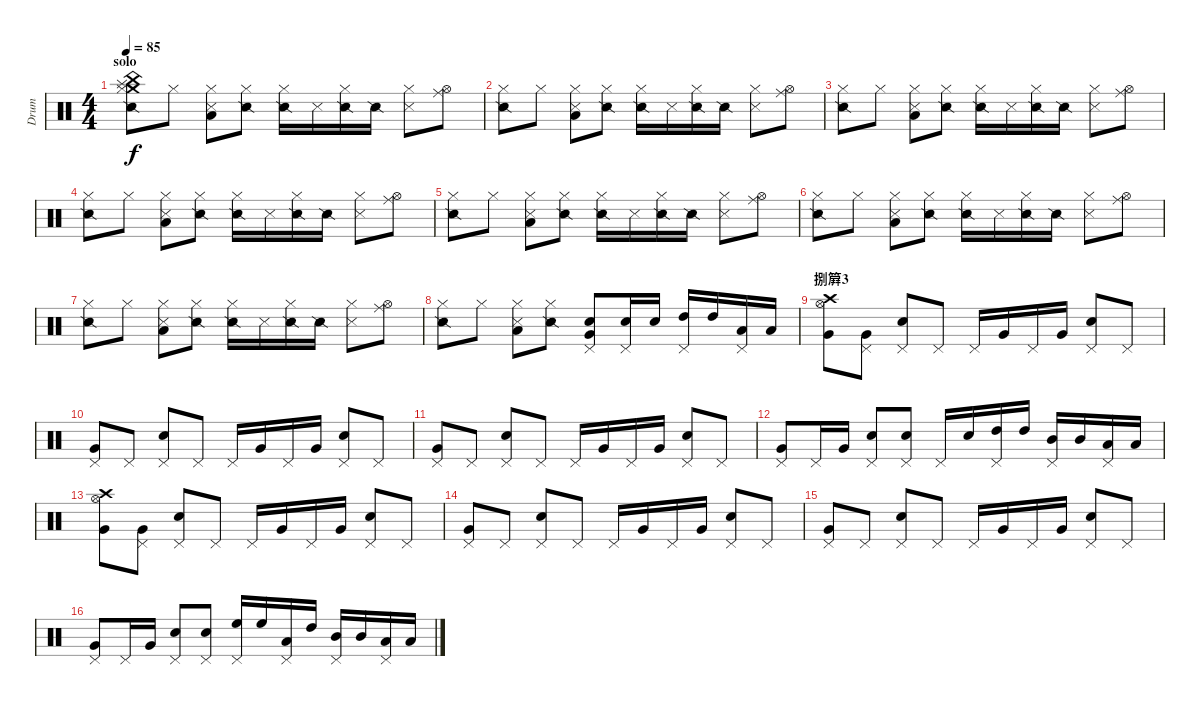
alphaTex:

\track ("Drum" "Drum") {instrument percussion}
\staff {score}
\articulation defaults
\ts (4 4)
\section ("" "solo")
\tempo 85
\clef neutral
\ks c
("Crash medium (hit)" "Splash (hit)" "China (hit)" "Snare (side stick) 2" "Hi-Hat (closed)").8{dy f} "Hi-Hat (closed)".8 ("Metronome (hit)" "Low Floor Tom (hit)" "Hi-Hat (closed)").8 ("Snare (side stick) 2" "Hi-Hat (closed)").8 ("Snare (side stick) 2" "Hi-Hat (closed)").16 "Metronome (hit)".16 ("Snare (side stick) 2" "Hi-Hat (closed)").16 "Snare (side stick) 2".16 ("Metronome (hit)" "Hi-Hat (closed)").8 ("Ride (middle)" "Hi-Hat (open)").8 |
("Snare (side stick) 2" "Hi-Hat (closed)").8 "Hi-Hat (closed)".8 ("Metronome (hit)" "Low Floor Tom (hit)" "Hi-Hat (closed)").8 ("Snare (side stick) 2" "Hi-Hat (closed)").8 ("Snare (side stick) 2" "Hi-Hat (closed)").16 "Metronome (hit)".16 ("Snare (side stick) 2" "Hi-Hat (closed)").16 "Snare (side stick) 2".16 ("Metronome (hit)" "Hi-Hat (closed)").8 ("Ride (middle)" "Hi-Hat (open)").8 |
("Snare (side stick) 2" "Hi-Hat (closed)").8 "Hi-Hat (closed)".8 ("Metronome (hit)" "Low Floor Tom (hit)" "Hi-Hat (closed)").8 ("Snare (side stick) 2" "Hi-Hat (closed)").8 ("Snare (side stick) 2" "Hi-Hat (closed)").16 "Metronome (hit)".16 ("Snare (side stick) 2" "Hi-Hat (closed)").16 "Snare (side stick) 2".16 ("Metronome (hit)" "Hi-Hat (closed)").8 ("Ride (middle)" "Hi-Hat (open)").8 |
("Snare (side stick) 2" "Hi-Hat (closed)").8 "Hi-Hat (closed)".8 ("Metronome (hit)" "Low Floor Tom (hit)" "Hi-Hat (closed)").8 ("Snare (side stick) 2" "Hi-Hat (closed)").8 ("Snare (side stick) 2" "Hi-Hat (closed)").16 "Metronome (hit)".16 ("Snare (side stick) 2" "Hi-Hat (closed)").16 "Snare (side stick) 2".16 ("Metronome (hit)" "Hi-Hat (closed)").8 ("Ride (middle)" "Hi-Hat (open)").8 |
("Snare (side stick) 2" "Hi-Hat (closed)").8 "Hi-Hat (closed)".8 ("Metronome (hit)" "Low Floor Tom (hit)" "Hi-Hat (closed)").8 ("Snare (side stick) 2" "Hi-Hat (closed)").8 ("Snare (side stick) 2" "Hi-Hat (closed)").16 "Metronome (hit)".16 ("Snare (side stick) 2" "Hi-Hat (closed)").16 "Snare (side stick) 2".16 ("Metronome (hit)" "Hi-Hat (closed)").8 ("Ride (middle)" "Hi-Hat (open)").8 |
("Snare (side stick) 2" "Hi-Hat (closed)").8 "Hi-Hat (closed)".8 ("Metronome (hit)" "Low Floor Tom (hit)" "Hi-Hat (closed)").8 ("Snare (side stick) 2" "Hi-Hat (closed)").8 ("Snare (side stick) 2" "Hi-Hat (closed)").16 "Metronome (hit)".16 ("Snare (side stick) 2" "Hi-Hat (closed)").16 "Snare (side stick) 2".16 ("Metronome (hit)" "Hi-Hat (closed)").8 ("Ride (middle)" "Hi-Hat (open)").8 |
("Snare (side stick) 2" "Hi-Hat (closed)").8 "Hi-Hat (closed)".8 ("Metronome (hit)" "Low Floor Tom (hit)" "Hi-Hat (closed)").8 ("Snare (side stick) 2" "Hi-Hat (closed)").8 ("Snare (side stick) 2" "Hi-Hat (closed)").16 "Metronome (hit)".16 ("Snare (side stick) 2" "Hi-Hat (closed)").16 "Snare (side stick) 2".16 ("Metronome (hit)" "Hi-Hat (closed)").8 ("Ride (middle)" "Hi-Hat (open)").8 |
("Snare (side stick) 2" "Hi-Hat (closed)").8 "Hi-Hat (closed)".8 ("Metronome (hit)" "Low Floor Tom (hit)" "Hi-Hat (closed)").8 ("Snare (side stick) 2" "Hi-Hat (closed)").8 ("Snare (hit) 2" "Very Low Tom (hit)" "Pedal Hi-Hat (hit)").8 ("Snare (hit) 2" "Pedal Hi-Hat (hit)").16 "Snare (hit) 2".16 ("High Tom (hit)" "Pedal Hi-Hat (hit)").16 "High Tom (hit)".16 ("Low Tom (hit)" "Pedal Hi-Hat (hit)").16 "Low Tom (hit)".16 |
\section ("" "捌簈3")
("Crash high (hit)" "Very Low Tom (hit)" "Hi-Hat (open)").8 ("Very Low Tom (hit)" "Pedal Hi-Hat (hit)").8 ("Snare (hit) 2" "Pedal Hi-Hat (hit)").8 "Pedal Hi-Hat (hit)".8 "Pedal Hi-Hat (hit)".16 "Very Low Tom (hit)".16 "Pedal Hi-Hat (hit)".16 "Very Low Tom (hit)".16 ("Snare (hit) 2" "Pedal Hi-Hat (hit)").8 "Pedal Hi-Hat (hit)".8 |
("Very Low Tom (hit)" "Pedal Hi-Hat (hit)").8 "Pedal Hi-Hat (hit)".8 ("Snare (hit) 2" "Pedal Hi-Hat (hit)").8 "Pedal Hi-Hat (hit)".8 "Pedal Hi-Hat (hit)".16 "Very Low Tom (hit)".16 "Pedal Hi-Hat (hit)".16 "Very Low Tom (hit)".16 ("Snare (hit) 2" "Pedal Hi-Hat (hit)").8 "Pedal Hi-Hat (hit)".8 |
("Very Low Tom (hit)" "Pedal Hi-Hat (hit)").8 "Pedal Hi-Hat (hit)".8 ("Snare (hit) 2" "Pedal Hi-Hat (hit)").8 "Pedal Hi-Hat (hit)".8 "Pedal Hi-Hat (hit)".16 "Very Low Tom (hit)".16 "Pedal Hi-Hat (hit)".16 "Very Low Tom (hit)".16 ("Snare (hit) 2" "Pedal Hi-Hat (hit)").8 "Pedal Hi-Hat (hit)".8 |
("Very Low Tom (hit)" "Pedal Hi-Hat (hit)").8 "Pedal Hi-Hat (hit)".16 "Very Low Tom (hit)".16 ("Snare (hit) 2" "Pedal Hi-Hat (hit)").8 ("Snare (hit) 2" "Pedal Hi-Hat (hit)").8 "Pedal Hi-Hat (hit)".16 "Snare (hit) 2".16 ("High Tom (hit)" "Pedal Hi-Hat (hit)").16 "High Tom (hit)".16 ("Mid Tom (hit)" "Pedal Hi-Hat (hit)").16 "Mid Tom (hit)".16 ("Low Tom (hit)" "Pedal Hi-Hat (hit)").16 "Low Tom (hit)".16 |
("Crash high (hit)" "Very Low Tom (hit)" "Hi-Hat (open)").8 ("Very Low Tom (hit)" "Pedal Hi-Hat (hit)").8 ("Snare (hit) 2" "Pedal Hi-Hat (hit)").8 "Pedal Hi-Hat (hit)".8 "Pedal Hi-Hat (hit)".16 "Very Low Tom (hit)".16 "Pedal Hi-Hat (hit)".16 "Very Low Tom (hit)".16 ("Snare (hit) 2" "Pedal Hi-Hat (hit)").8 "Pedal Hi-Hat (hit)".8 |
("Very Low Tom (hit)" "Pedal Hi-Hat (hit)").8 "Pedal Hi-Hat (hit)".8 ("Snare (hit) 2" "Pedal Hi-Hat (hit)").8 "Pedal Hi-Hat (hit)".8 "Pedal Hi-Hat (hit)".16 "Very Low Tom (hit)".16 "Pedal Hi-Hat (hit)".16 "Very Low Tom (hit)".16 ("Snare (hit) 2" "Pedal Hi-Hat (hit)").8 "Pedal Hi-Hat (hit)".8 |
("Very Low Tom (hit)" "Pedal Hi-Hat (hit)").8 "Pedal Hi-Hat (hit)".8 ("Snare (hit) 2" "Pedal Hi-Hat (hit)").8 "Pedal Hi-Hat (hit)".8 "Pedal Hi-Hat (hit)".16 "Very Low Tom (hit)".16 "Pedal Hi-Hat (hit)".16 "Very Low Tom (hit)".16 ("Snare (hit) 2" "Pedal Hi-Hat (hit)").8 "Pedal Hi-Hat (hit)".8 |
("Very Low Tom (hit)" "Pedal Hi-Hat (hit)").8 "Pedal Hi-Hat (hit)".16 "Very Low Tom (hit)".16 ("Snare (hit) 2" "Pedal Hi-Hat (hit)").8 ("Snare (hit) 2" "Pedal Hi-Hat (hit)").8 ("High Floor Tom (hit)" "Pedal Hi-Hat (hit)").16 "High Floor Tom (hit)".16 ("Low Tom (hit)" "Pedal Hi-Hat (hit)").16 "High Tom (hit)".16 ("Mid Tom (hit)" "Pedal Hi-Hat (hit)").16 "Mid Tom (hit)".16 ("Low Tom (hit)" "Pedal Hi-Hat (hit)").16 "Low Tom (hit)".16
